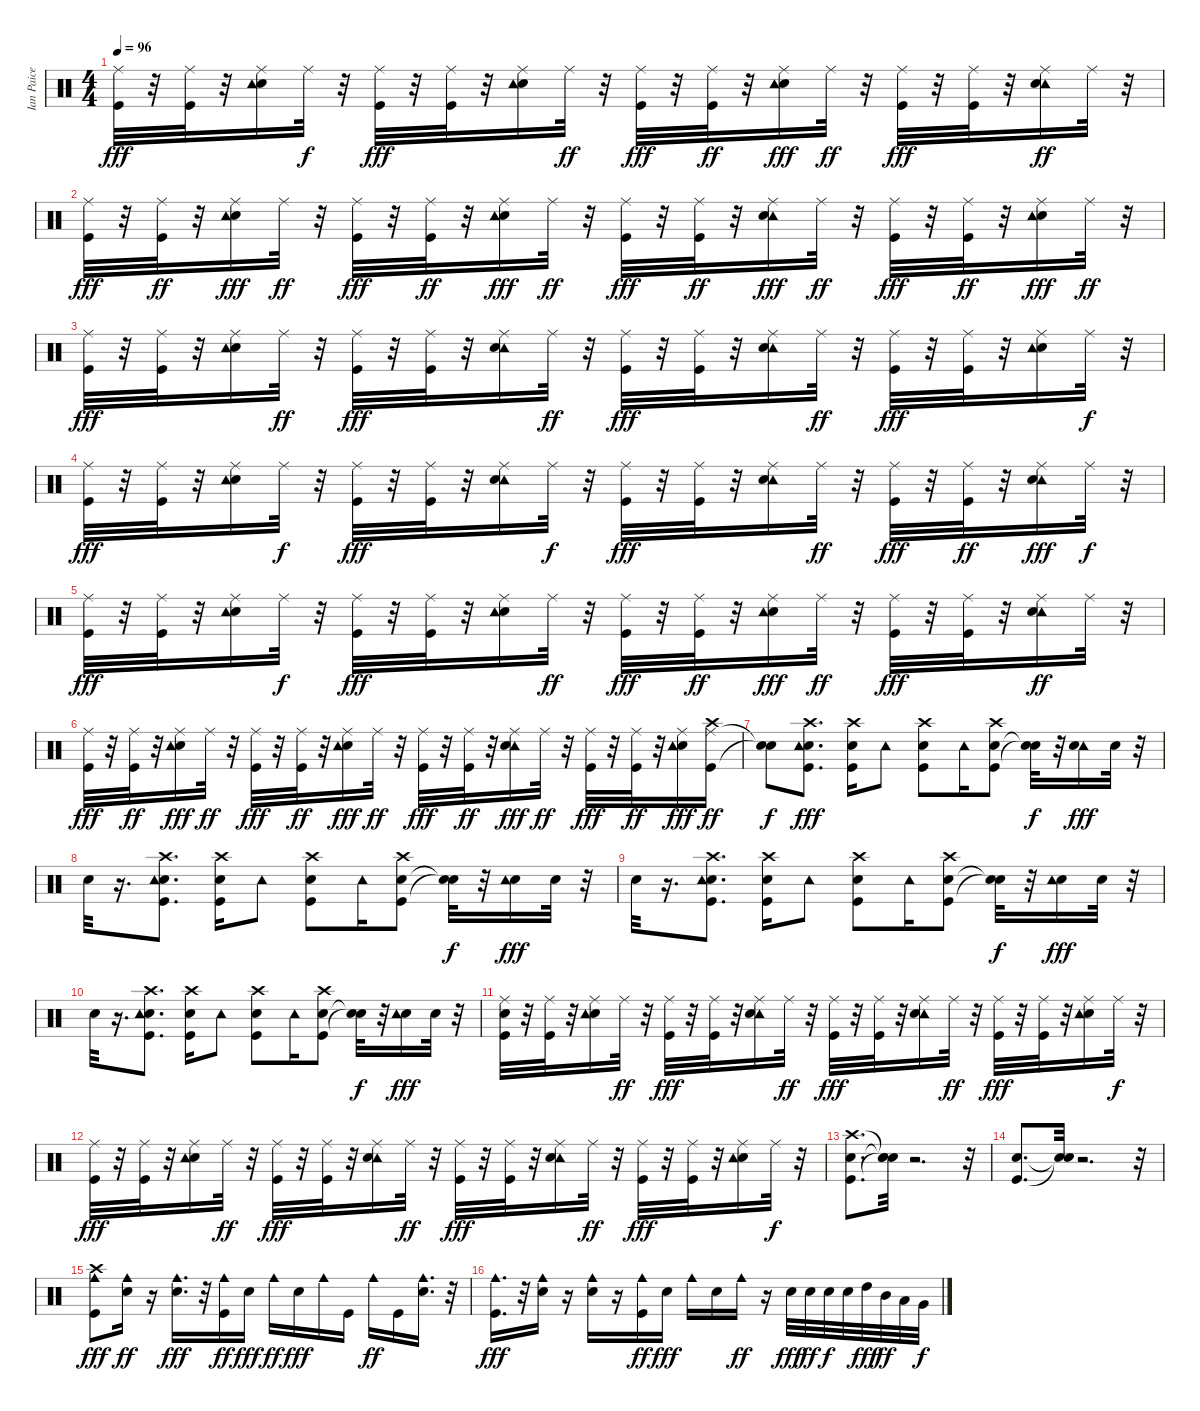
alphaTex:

\track ("Ian Paice" "Ian Paice") {instrument percussion}
\staff {score}
\articulation defaults
\ts (4 4)
\tempo 96
\clef neutral
\ks c
("Ride (middle)" "Kick (hit)").32{dy fff} r.32 ("Kick (hit)" "Ride (middle)").32 r.32 ("Snare (hit) 2" "Ride (middle)" "Tambourine (hit)").16 "Ride (middle)".32{dy f} r.32 ("Ride (middle)" "Kick (hit)").32{dy fff} r.32 ("Kick (hit)" "Ride (middle)").32 r.32 ("Snare (hit) 2" "Ride (middle)" "Tambourine (hit)").16 "Ride (middle)".32{dy ff} r.32 ("Ride (middle)" "Kick (hit)").32{dy fff} r.32 ("Kick (hit)" "Ride (middle)").32{dy ff} r.32 ("Snare (hit) 2" "Ride (middle)" "Tambourine (hit)").16{dy fff} "Ride (middle)".32{dy ff} r.32 ("Ride (middle)" "Kick (hit)").32{dy fff} r.32 ("Kick (hit)" "Ride (middle)").32 r.32 ("Tambourine (hit)" "Snare (hit) 2" "Ride (middle)").16{dy ff} "Ride (middle)".32 r.32 |
("Ride (middle)" "Kick (hit)").32{dy fff} r.32 ("Kick (hit)" "Ride (middle)").32{dy ff} r.32 ("Snare (hit) 2" "Ride (middle)" "Tambourine (hit)").16{dy fff} "Ride (middle)".32{dy ff} r.32 ("Ride (middle)" "Kick (hit)").32{dy fff} r.32 ("Kick (hit)" "Ride (middle)").32{dy ff} r.32 ("Snare (hit) 2" "Ride (middle)" "Tambourine (hit)").16{dy fff} "Ride (middle)".32{dy ff} r.32 ("Ride (middle)" "Kick (hit)").32{dy fff} r.32 ("Kick (hit)" "Ride (middle)").32{dy ff} r.32 ("Tambourine (hit)" "Snare (hit) 2" "Ride (middle)").16{dy fff} "Ride (middle)".32{dy ff} r.32 ("Ride (middle)" "Kick (hit)").32{dy fff} r.32 ("Kick (hit)" "Ride (middle)").32{dy ff} r.32 ("Snare (hit) 2" "Ride (middle)" "Tambourine (hit)").16{dy fff} "Ride (middle)".32{dy ff} r.32 |
("Ride (middle)" "Kick (hit)").32{dy fff} r.32 ("Kick (hit)" "Ride (middle)").32 r.32 ("Snare (hit) 2" "Ride (middle)" "Tambourine (hit)").16 "Ride (middle)".32{dy ff} r.32 ("Ride (middle)" "Kick (hit)").32{dy fff} r.32 ("Kick (hit)" "Ride (middle)").32 r.32 ("Tambourine (hit)" "Snare (hit) 2" "Ride (middle)").16 "Ride (middle)".32{dy ff} r.32 ("Ride (middle)" "Kick (hit)").32{dy fff} r.32 ("Kick (hit)" "Ride (middle)").32 r.32 ("Tambourine (hit)" "Snare (hit) 2" "Ride (middle)").16 "Ride (middle)".32{dy ff} r.32 ("Ride (middle)" "Kick (hit)").32{dy fff} r.32 ("Kick (hit)" "Ride (middle)").32 r.32 ("Snare (hit) 2" "Ride (middle)" "Tambourine (hit)").16 "Ride (middle)".32{dy f} r.32 |
("Ride (middle)" "Kick (hit)").32{dy fff} r.32 ("Kick (hit)" "Ride (middle)").32 r.32 ("Snare (hit) 2" "Ride (middle)" "Tambourine (hit)").16 "Ride (middle)".32{dy f} r.32 ("Ride (middle)" "Kick (hit)").32{dy fff} r.32 ("Kick (hit)" "Ride (middle)").32 r.32 ("Tambourine (hit)" "Snare (hit) 2" "Ride (middle)").16 "Ride (middle)".32{dy f} r.32 ("Ride (middle)" "Kick (hit)").32{dy fff} r.32 ("Kick (hit)" "Ride (middle)").32 r.32 ("Tambourine (hit)" "Snare (hit) 2" "Ride (middle)").16 "Ride (middle)".32{dy ff} r.32 ("Ride (middle)" "Kick (hit)").32{dy fff} r.32 ("Kick (hit)" "Ride (middle)").32{dy ff} r.32 ("Tambourine (hit)" "Snare (hit) 2" "Ride (middle)").16{dy fff} "Ride (middle)".32{dy f} r.32 |
("Ride (middle)" "Kick (hit)").32{dy fff} r.32 ("Kick (hit)" "Ride (middle)").32 r.32 ("Snare (hit) 2" "Ride (middle)" "Tambourine (hit)").16 "Ride (middle)".32{dy f} r.32 ("Ride (middle)" "Kick (hit)").32{dy fff} r.32 ("Kick (hit)" "Ride (middle)").32 r.32 ("Snare (hit) 2" "Ride (middle)" "Tambourine (hit)").16 "Ride (middle)".32{dy ff} r.32 ("Ride (middle)" "Kick (hit)").32{dy fff} r.32 ("Kick (hit)" "Ride (middle)").32{dy ff} r.32 ("Snare (hit) 2" "Ride (middle)" "Tambourine (hit)").16{dy fff} "Ride (middle)".32{dy ff} r.32 ("Ride (middle)" "Kick (hit)").32{dy fff} r.32 ("Kick (hit)" "Ride (middle)").32 r.32 ("Tambourine (hit)" "Snare (hit) 2" "Ride (middle)").16{dy ff} "Ride (middle)".32 r.32 |
("Ride (middle)" "Kick (hit)").32{dy fff} r.32 ("Kick (hit)" "Ride (middle)").32{dy ff} r.32 ("Snare (hit) 2" "Ride (middle)" "Tambourine (hit)").16{dy fff} "Ride (middle)".32{dy ff} r.32 ("Ride (middle)" "Kick (hit)").32{dy fff} r.32 ("Kick (hit)" "Ride (middle)").32{dy ff} r.32 ("Snare (hit) 2" "Ride (middle)" "Tambourine (hit)").16{dy fff} "Ride (middle)".32{dy ff} r.32 ("Ride (middle)" "Kick (hit)").32{dy fff} r.32 ("Kick (hit)" "Ride (middle)").32{dy ff} r.32 ("Tambourine (hit)" "Snare (hit) 2" "Ride (middle)").16{dy fff} "Ride (middle)".32{dy ff} r.32 ("Ride (middle)" "Kick (hit)").32{dy fff} r.32 ("Kick (hit)" "Ride (middle)").32{dy ff} r.32 ("Snare (hit) 2" "Ride (middle)" "Tambourine (hit)").16{dy fff} ("Ride (middle)" "Kick (hit)" "Crash high (hit)").16{dy ff} |
("Snare (hit)"{t} "Snare (hit)"{t}).8{dy f} ("Snare (hit)" "Tambourine (hit)" "Kick (hit)" "Crash high (hit)").8{d dy fff} ("Snare (hit)" "Kick (hit)" "Crash high (hit)").16 "Tambourine (hit)".8 ("Snare (hit)" "Kick (hit)" "Crash high (hit)").8 "Tambourine (hit)".16 ("Snare (hit)" "Kick (hit)" "Crash high (hit)").8 ("Snare (hit)"{t} "Snare (hit)"{t}).32{dy f} r.32 ("Tambourine (hit)" "Snare (hit)").16{dy fff} "Snare (hit)".32 r.32 |
"Snare (hit)".32 r.16{d} ("Snare (hit)" "Tambourine (hit)" "Kick (hit)" "Crash high (hit)").8{d} ("Snare (hit)" "Kick (hit)" "Crash high (hit)").16 "Tambourine (hit)".8 ("Snare (hit)" "Kick (hit)" "Crash high (hit)").8 "Tambourine (hit)".16 ("Snare (hit)" "Kick (hit)" "Crash high (hit)").8 ("Snare (hit)"{t} "Snare (hit)"{t}).32{dy f} r.32 ("Snare (hit)" "Tambourine (hit)").16{dy fff} "Snare (hit)".32 r.32 |
"Snare (hit)".32 r.16{d} ("Snare (hit)" "Tambourine (hit)" "Kick (hit)" "Crash high (hit)").8{d} ("Snare (hit)" "Kick (hit)" "Crash high (hit)").16 "Tambourine (hit)".8 ("Snare (hit)" "Kick (hit)" "Crash high (hit)").8 "Tambourine (hit)".16 ("Snare (hit)" "Kick (hit)" "Crash high (hit)").8 ("Snare (hit)"{t} "Snare (hit)"{t}).32{dy f} r.32 ("Snare (hit)" "Tambourine (hit)").16{dy fff} "Snare (hit)".32 r.32 |
"Snare (hit)".32 r.16{d} ("Snare (hit)" "Tambourine (hit)" "Kick (hit)" "Crash high (hit)").8{d} ("Snare (hit)" "Kick (hit)" "Crash high (hit)").16 "Tambourine (hit)".8 ("Snare (hit)" "Kick (hit)" "Crash high (hit)").8 "Tambourine (hit)".16 ("Snare (hit)" "Kick (hit)" "Crash high (hit)").8 ("Snare (hit)"{t} "Snare (hit)"{t}).32{dy f} r.32 ("Snare (hit)" "Tambourine (hit)").16{dy fff} "Snare (hit)".32 r.32 |
("Ride (middle)" "Kick (hit)" "Snare (hit)").32 r.32 ("Kick (hit)" "Ride (middle)").32 r.32 ("Ride (middle)" "Snare (hit) 2" "Tambourine (hit)").16 "Ride (middle)".32{dy ff} r.32 ("Ride (middle)" "Kick (hit)").32{dy fff} r.32 ("Kick (hit)" "Ride (middle)").32 r.32 ("Tambourine (hit)" "Snare (hit) 2" "Ride (middle)").16 "Ride (middle)".32{dy ff} r.32 ("Ride (middle)" "Kick (hit)").32{dy fff} r.32 ("Kick (hit)" "Ride (middle)").32 r.32 ("Tambourine (hit)" "Snare (hit) 2" "Ride (middle)").16 "Ride (middle)".32{dy ff} r.32 ("Ride (middle)" "Kick (hit)").32{dy fff} r.32 ("Kick (hit)" "Ride (middle)").32 r.32 ("Snare (hit) 2" "Ride (middle)" "Tambourine (hit)").16 "Ride (middle)".32{dy f} r.32 |
("Ride (middle)" "Kick (hit)").32{dy fff} r.32 ("Kick (hit)" "Ride (middle)").32 r.32 ("Snare (hit) 2" "Ride (middle)" "Tambourine (hit)").16 "Ride (middle)".32{dy ff} r.32 ("Ride (middle)" "Kick (hit)").32{dy fff} r.32 ("Kick (hit)" "Ride (middle)").32 r.32 ("Tambourine (hit)" "Snare (hit) 2" "Ride (middle)").16 "Ride (middle)".32{dy ff} r.32 ("Ride (middle)" "Kick (hit)").32{dy fff} r.32 ("Kick (hit)" "Ride (middle)").32 r.32 ("Tambourine (hit)" "Snare (hit) 2" "Ride (middle)").16 "Ride (middle)".32{dy ff} r.32 ("Ride (middle)" "Kick (hit)").32{dy fff} r.32 ("Kick (hit)" "Ride (middle)").32 r.32 ("Snare (hit) 2" "Ride (middle)" "Tambourine (hit)").16 "Ride (middle)".32{dy f} r.32 |
("Kick (hit)" "Snare (hit) 2" "Crash high (hit)").8{d} ("Snare (hit)"{t} "Snare (hit)"{t} "Snare (hit)"{t}).32 r.2{d} r.32 |
("Kick (hit)" "Snare (hit)").8{d} ("Snare (hit)"{t} "Snare (hit)"{t}).32 r.2{d} r.32 |
("Cowbell medium (hit)" "Kick (hit)" "Crash high (hit)").8{dy fff} ("Snare (hit) 2" "Cowbell medium (hit)").16{dy ff} r.16 ("Cowbell medium (hit)" "Snare (hit) 2").16{d dy fff} r.32 ("Kick (hit)" "Cowbell medium (hit)").16{dy ff} "Snare (hit) 2".16{dy fff} "Cowbell medium (hit)".16{dy ff} "Snare (hit) 2".16{dy fff} "Cowbell medium (hit)".16 "Kick (hit)".16 "Cowbell medium (hit)".16{dy ff} "Kick (hit)".16 ("Snare (hit) 2" "Cowbell medium (hit)").16{d} r.32 |
("Cowbell medium (hit)" "Kick (hit)").16{d dy fff} r.32 ("Snare (hit) 2" "Cowbell medium (hit)").16 r.16 ("Cowbell medium (hit)" "Snare (hit) 2").16 r.16 ("Kick (hit)" "Cowbell medium (hit)").16{dy ff} "Snare (hit) 2".16{dy fff} "Cowbell medium (hit)".16 "Snare (hit) 2".16 "Cowbell medium (hit)".16{dy ff} r.16 "Snare (hit) 2".32{dy fff} "Snare (hit) 2".32{dy ff} "Snare (hit) 2".32{dy f} "Snare (hit) 2".32 "High Tom (hit)".32{dy fff} "Mid Tom (hit)".32{dy ff} "Low Tom (hit)".32 "Very Low Tom (hit)".32{dy f}
